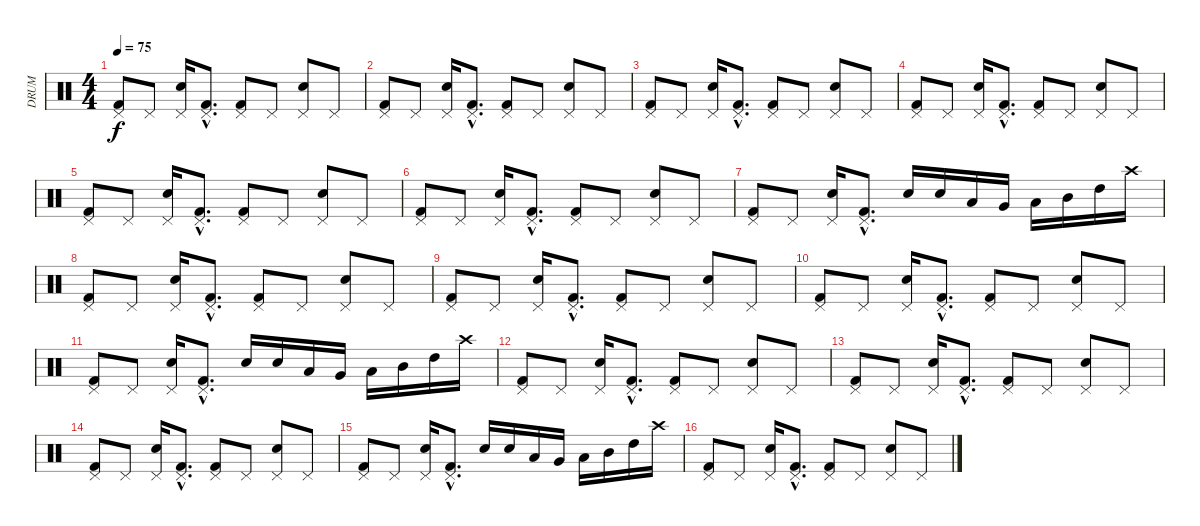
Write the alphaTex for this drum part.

\track ("DRUM" "DRUM") {instrument percussion}
\staff {score}
\articulation defaults
\ts (4 4)
\tempo 75
\clef neutral
\ks c
("Kick (hit) 2" "Pedal Hi-Hat (hit)").8{dy f} "Pedal Hi-Hat (hit)".8 ("Electric Snare (hit)" "Pedal Hi-Hat (hit)").16 ("Kick (hit) 2"{hac} "Pedal Hi-Hat (hit)"{hac}).8{d} ("Kick (hit) 2" "Pedal Hi-Hat (hit)").8 "Pedal Hi-Hat (hit)".8 ("Electric Snare (hit)" "Pedal Hi-Hat (hit)").8 "Pedal Hi-Hat (hit)".8 |
("Kick (hit) 2" "Pedal Hi-Hat (hit)").8 "Pedal Hi-Hat (hit)".8 ("Electric Snare (hit)" "Pedal Hi-Hat (hit)").16 ("Kick (hit) 2"{hac} "Pedal Hi-Hat (hit)"{hac}).8{d} ("Kick (hit) 2" "Pedal Hi-Hat (hit)").8 "Pedal Hi-Hat (hit)".8 ("Electric Snare (hit)" "Pedal Hi-Hat (hit)").8 "Pedal Hi-Hat (hit)".8 |
("Kick (hit) 2" "Pedal Hi-Hat (hit)").8 "Pedal Hi-Hat (hit)".8 ("Electric Snare (hit)" "Pedal Hi-Hat (hit)").16 ("Kick (hit) 2"{hac} "Pedal Hi-Hat (hit)"{hac}).8{d} ("Kick (hit) 2" "Pedal Hi-Hat (hit)").8 "Pedal Hi-Hat (hit)".8 ("Electric Snare (hit)" "Pedal Hi-Hat (hit)").8 "Pedal Hi-Hat (hit)".8 |
("Kick (hit) 2" "Pedal Hi-Hat (hit)").8 "Pedal Hi-Hat (hit)".8 ("Electric Snare (hit)" "Pedal Hi-Hat (hit)").16 ("Kick (hit) 2"{hac} "Pedal Hi-Hat (hit)"{hac}).8{d} ("Kick (hit) 2" "Pedal Hi-Hat (hit)").8 "Pedal Hi-Hat (hit)".8 ("Electric Snare (hit)" "Pedal Hi-Hat (hit)").8 "Pedal Hi-Hat (hit)".8 |
("Kick (hit) 2" "Pedal Hi-Hat (hit)").8 "Pedal Hi-Hat (hit)".8 ("Electric Snare (hit)" "Pedal Hi-Hat (hit)").16 ("Kick (hit) 2"{hac} "Pedal Hi-Hat (hit)"{hac}).8{d} ("Kick (hit) 2" "Pedal Hi-Hat (hit)").8 "Pedal Hi-Hat (hit)".8 ("Electric Snare (hit)" "Pedal Hi-Hat (hit)").8 "Pedal Hi-Hat (hit)".8 |
("Kick (hit) 2" "Pedal Hi-Hat (hit)").8 "Pedal Hi-Hat (hit)".8 ("Electric Snare (hit)" "Pedal Hi-Hat (hit)").16 ("Kick (hit) 2"{hac} "Pedal Hi-Hat (hit)"{hac}).8{d} ("Kick (hit) 2" "Pedal Hi-Hat (hit)").8 "Pedal Hi-Hat (hit)".8 ("Electric Snare (hit)" "Pedal Hi-Hat (hit)").8 "Pedal Hi-Hat (hit)".8 |
("Kick (hit) 2" "Pedal Hi-Hat (hit)").8 "Pedal Hi-Hat (hit)".8 ("Electric Snare (hit)" "Pedal Hi-Hat (hit)").16 ("Kick (hit) 2"{hac} "Pedal Hi-Hat (hit)"{hac}).8{d} "Electric Snare (hit)".16 "Electric Snare (hit)".16 "Low Floor Tom (hit)".16 "Very Low Tom (hit)".16 "Low Tom (hit)".16 "Mid Tom (hit)".16 "High Tom (hit)".16 "Crash high (hit)".16 |
("Kick (hit) 2" "Pedal Hi-Hat (hit)").8 "Pedal Hi-Hat (hit)".8 ("Electric Snare (hit)" "Pedal Hi-Hat (hit)").16 ("Kick (hit) 2"{hac} "Pedal Hi-Hat (hit)"{hac}).8{d} ("Kick (hit) 2" "Pedal Hi-Hat (hit)").8 "Pedal Hi-Hat (hit)".8 ("Electric Snare (hit)" "Pedal Hi-Hat (hit)").8 "Pedal Hi-Hat (hit)".8 |
("Kick (hit) 2" "Pedal Hi-Hat (hit)").8 "Pedal Hi-Hat (hit)".8 ("Electric Snare (hit)" "Pedal Hi-Hat (hit)").16 ("Kick (hit) 2"{hac} "Pedal Hi-Hat (hit)"{hac}).8{d} ("Kick (hit) 2" "Pedal Hi-Hat (hit)").8 "Pedal Hi-Hat (hit)".8 ("Electric Snare (hit)" "Pedal Hi-Hat (hit)").8 "Pedal Hi-Hat (hit)".8 |
("Kick (hit) 2" "Pedal Hi-Hat (hit)").8 "Pedal Hi-Hat (hit)".8 ("Electric Snare (hit)" "Pedal Hi-Hat (hit)").16 ("Kick (hit) 2"{hac} "Pedal Hi-Hat (hit)"{hac}).8{d} ("Kick (hit) 2" "Pedal Hi-Hat (hit)").8 "Pedal Hi-Hat (hit)".8 ("Electric Snare (hit)" "Pedal Hi-Hat (hit)").8 "Pedal Hi-Hat (hit)".8 |
("Kick (hit) 2" "Pedal Hi-Hat (hit)").8 "Pedal Hi-Hat (hit)".8 ("Electric Snare (hit)" "Pedal Hi-Hat (hit)").16 ("Kick (hit) 2"{hac} "Pedal Hi-Hat (hit)"{hac}).8{d} "Electric Snare (hit)".16 "Electric Snare (hit)".16 "Low Floor Tom (hit)".16 "Very Low Tom (hit)".16 "Low Tom (hit)".16 "Mid Tom (hit)".16 "High Tom (hit)".16 "Crash high (hit)".16 |
("Kick (hit) 2" "Pedal Hi-Hat (hit)").8 "Pedal Hi-Hat (hit)".8 ("Electric Snare (hit)" "Pedal Hi-Hat (hit)").16 ("Kick (hit) 2"{hac} "Pedal Hi-Hat (hit)"{hac}).8{d} ("Kick (hit) 2" "Pedal Hi-Hat (hit)").8 "Pedal Hi-Hat (hit)".8 ("Electric Snare (hit)" "Pedal Hi-Hat (hit)").8 "Pedal Hi-Hat (hit)".8 |
("Kick (hit) 2" "Pedal Hi-Hat (hit)").8 "Pedal Hi-Hat (hit)".8 ("Electric Snare (hit)" "Pedal Hi-Hat (hit)").16 ("Kick (hit) 2"{hac} "Pedal Hi-Hat (hit)"{hac}).8{d} ("Kick (hit) 2" "Pedal Hi-Hat (hit)").8 "Pedal Hi-Hat (hit)".8 ("Electric Snare (hit)" "Pedal Hi-Hat (hit)").8 "Pedal Hi-Hat (hit)".8 |
("Kick (hit) 2" "Pedal Hi-Hat (hit)").8 "Pedal Hi-Hat (hit)".8 ("Electric Snare (hit)" "Pedal Hi-Hat (hit)").16 ("Kick (hit) 2"{hac} "Pedal Hi-Hat (hit)"{hac}).8{d} ("Kick (hit) 2" "Pedal Hi-Hat (hit)").8 "Pedal Hi-Hat (hit)".8 ("Electric Snare (hit)" "Pedal Hi-Hat (hit)").8 "Pedal Hi-Hat (hit)".8 |
("Kick (hit) 2" "Pedal Hi-Hat (hit)").8 "Pedal Hi-Hat (hit)".8 ("Electric Snare (hit)" "Pedal Hi-Hat (hit)").16 ("Kick (hit) 2"{hac} "Pedal Hi-Hat (hit)"{hac}).8{d} "Electric Snare (hit)".16 "Electric Snare (hit)".16 "Low Floor Tom (hit)".16 "Very Low Tom (hit)".16 "Low Tom (hit)".16 "Mid Tom (hit)".16 "High Tom (hit)".16 "Crash high (hit)".16 |
("Kick (hit) 2" "Pedal Hi-Hat (hit)").8 "Pedal Hi-Hat (hit)".8 ("Electric Snare (hit)" "Pedal Hi-Hat (hit)").16 ("Kick (hit) 2"{hac} "Pedal Hi-Hat (hit)"{hac}).8{d} ("Kick (hit) 2" "Pedal Hi-Hat (hit)").8 "Pedal Hi-Hat (hit)".8 ("Electric Snare (hit)" "Pedal Hi-Hat (hit)").8 "Pedal Hi-Hat (hit)".8
